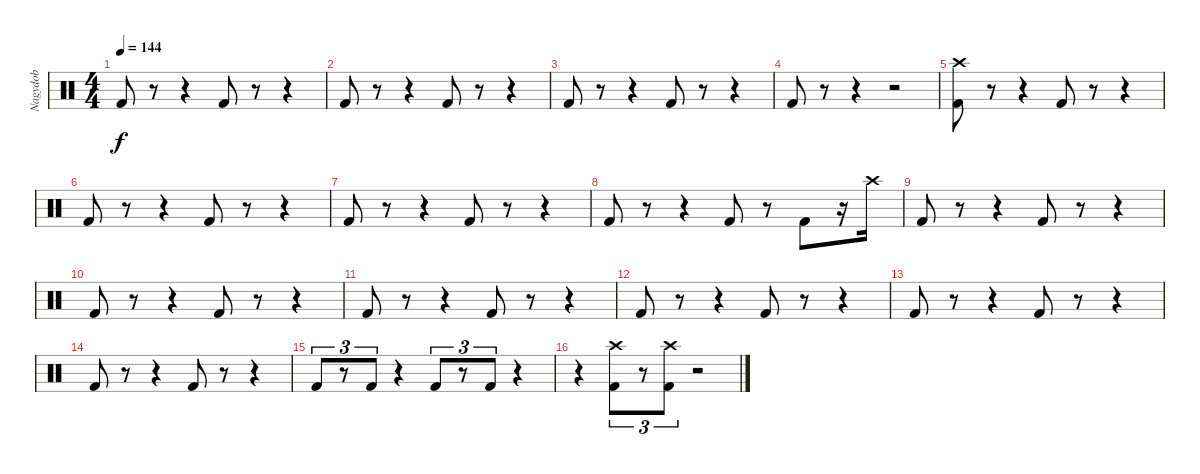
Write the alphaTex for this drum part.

\track ("Nagydob" "Nagydob") {instrument percussion}
\staff {score}
\articulation defaults
\ts (4 4)
\tempo 144
\clef neutral
\ks c "Kick (hit) 2".8{dy f}
r.8 r.4 "Kick (hit) 2".8 r.8 r.4 |
"Kick (hit) 2".8 r.8 r.4 "Kick (hit) 2".8 r.8 r.4 |
"Kick (hit) 2".8 r.8 r.4 "Kick (hit) 2".8 r.8 r.4 |
"Kick (hit) 2".8 r.8 r.4 r.2 |
("Kick (hit) 2" "Crash high (hit)").8 r.8 r.4 "Kick (hit) 2".8 r.8 r.4 |
"Kick (hit) 2".8 r.8 r.4 "Kick (hit) 2".8 r.8 r.4 |
"Kick (hit) 2".8 r.8 r.4 "Kick (hit) 2".8 r.8 r.4 |
"Kick (hit) 2".8 r.8 r.4 "Kick (hit) 2".8 r.8 "Kick (hit) 2".8 r.16 "Crash high (hit)".16 |
"Kick (hit) 2".8 r.8 r.4 "Kick (hit) 2".8 r.8 r.4 |
"Kick (hit) 2".8 r.8 r.4 "Kick (hit) 2".8 r.8 r.4 |
"Kick (hit) 2".8 r.8 r.4 "Kick (hit) 2".8 r.8 r.4 |
"Kick (hit) 2".8 r.8 r.4 "Kick (hit) 2".8 r.8 r.4 |
"Kick (hit) 2".8 r.8 r.4 "Kick (hit) 2".8 r.8 r.4 |
"Kick (hit) 2".8 r.8 r.4 "Kick (hit) 2".8 r.8 r.4 |
"Kick (hit) 2".8{tu (3 2)} r.8{tu (3 2)} "Kick (hit) 2".8{tu (3 2)} r.4 "Kick (hit) 2".8{tu (3 2)} r.8{tu (3 2)} "Kick (hit) 2".8{tu (3 2)} r.4 |
r.4 ("Kick (hit) 2" "Crash high (hit)").8{tu (3 2)} r.8{tu (3 2)} ("Kick (hit) 2" "Crash high (hit)").8{tu (3 2)} r.2
